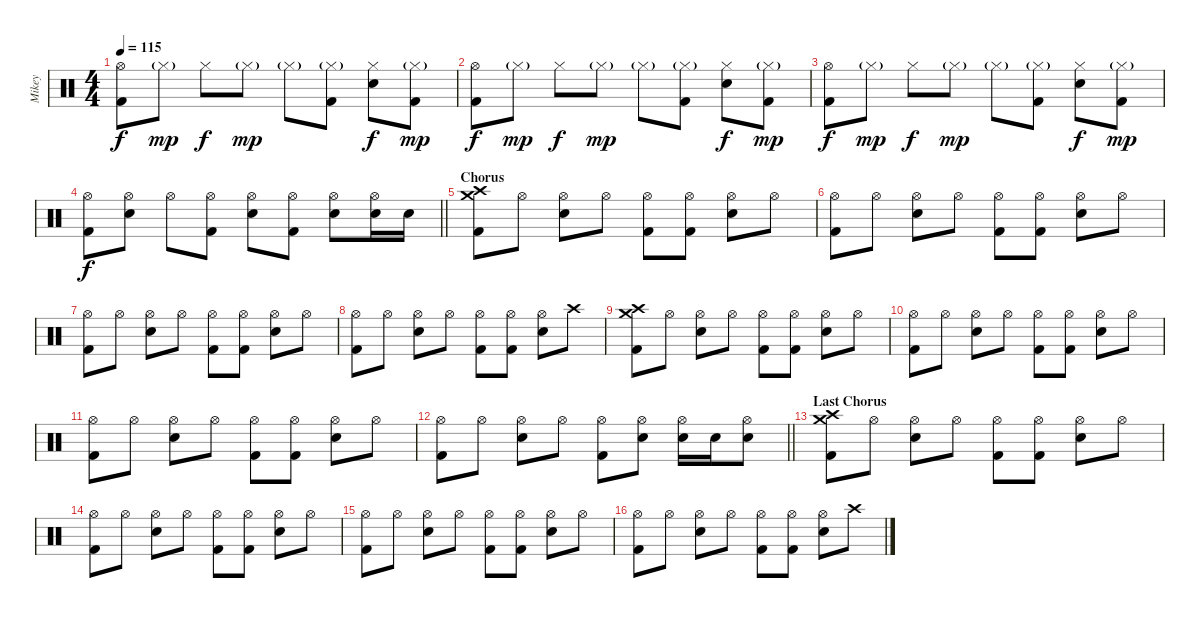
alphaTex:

\track ("Mikey" "Mikey") {instrument percussion}
\staff {score}
\articulation defaults
\ts (4 4)
\tempo 115
\clef neutral
\ks c
("Hi-Hat (open)" "Kick (hit) 2").8{dy f} "Hi-Hat (closed)"{g}.8{dy mp} "Hi-Hat (closed)".8{dy f} "Hi-Hat (closed)"{g}.8{dy mp} "Hi-Hat (closed)"{g}.8 ("Hi-Hat (closed)"{g} "Kick (hit) 2").8 ("Hi-Hat (closed)" "Snare (hit) 2").8{dy f} ("Hi-Hat (closed)"{g} "Kick (hit) 2").8{dy mp} |
("Hi-Hat (open)" "Kick (hit) 2").8{dy f} "Hi-Hat (closed)"{g}.8{dy mp} "Hi-Hat (closed)".8{dy f} "Hi-Hat (closed)"{g}.8{dy mp} "Hi-Hat (closed)"{g}.8 ("Hi-Hat (closed)"{g} "Kick (hit) 2").8 ("Hi-Hat (closed)" "Snare (hit) 2").8{dy f} ("Hi-Hat (closed)"{g} "Kick (hit) 2").8{dy mp} |
("Hi-Hat (open)" "Kick (hit) 2").8{dy f} "Hi-Hat (closed)"{g}.8{dy mp} "Hi-Hat (closed)".8{dy f} "Hi-Hat (closed)"{g}.8{dy mp} "Hi-Hat (closed)"{g}.8 ("Hi-Hat (closed)"{g} "Kick (hit) 2").8 ("Hi-Hat (closed)" "Snare (hit) 2").8{dy f} ("Hi-Hat (closed)"{g} "Kick (hit) 2").8{dy mp} |
\barLineRight lightlight
("Hi-Hat (open)" "Kick (hit) 2").8{dy f} ("Hi-Hat (open)" "Snare (hit) 2").8 "Hi-Hat (open)".8 ("Hi-Hat (open)" "Kick (hit) 2").8 ("Hi-Hat (open)" "Snare (hit) 2").8 ("Hi-Hat (open)" "Kick (hit) 2").8 ("Hi-Hat (open)" "Snare (hit) 2").8 ("Hi-Hat (open)" "Snare (hit) 2").16 "Snare (hit) 2".16 |
\section ("" "Chorus")
("Crash high (hit)" "Crash medium (hit)" "Kick (hit) 2").8 "Hi-Hat (open)".8 ("Hi-Hat (open)" "Snare (hit) 2").8 "Hi-Hat (open)".8 ("Hi-Hat (open)" "Kick (hit) 2").8 ("Hi-Hat (open)" "Kick (hit) 2").8 ("Hi-Hat (open)" "Snare (hit) 2").8 "Hi-Hat (open)".8 |
("Hi-Hat (open)" "Kick (hit) 2").8 "Hi-Hat (open)".8 ("Hi-Hat (open)" "Snare (hit) 2").8 "Hi-Hat (open)".8 ("Hi-Hat (open)" "Kick (hit) 2").8 ("Hi-Hat (open)" "Kick (hit) 2").8 ("Hi-Hat (open)" "Snare (hit) 2").8 "Hi-Hat (open)".8 |
("Hi-Hat (open)" "Kick (hit) 2").8 "Hi-Hat (open)".8 ("Hi-Hat (open)" "Snare (hit) 2").8 "Hi-Hat (open)".8 ("Hi-Hat (open)" "Kick (hit) 2").8 ("Hi-Hat (open)" "Kick (hit) 2").8 ("Hi-Hat (open)" "Snare (hit) 2").8 "Hi-Hat (open)".8 |
("Hi-Hat (open)" "Kick (hit) 2").8 "Hi-Hat (open)".8 ("Hi-Hat (open)" "Snare (hit) 2").8 "Hi-Hat (open)".8 ("Hi-Hat (open)" "Kick (hit) 2").8 ("Hi-Hat (open)" "Kick (hit) 2").8 ("Hi-Hat (open)" "Snare (hit) 2").8 "Crash high (hit)".8 |
("Crash high (hit)" "Crash medium (hit)" "Kick (hit) 2").8 "Hi-Hat (open)".8 ("Hi-Hat (open)" "Snare (hit) 2").8 "Hi-Hat (open)".8 ("Hi-Hat (open)" "Kick (hit) 2").8 ("Hi-Hat (open)" "Kick (hit) 2").8 ("Hi-Hat (open)" "Snare (hit) 2").8 "Hi-Hat (open)".8 |
("Hi-Hat (open)" "Kick (hit) 2").8 "Hi-Hat (open)".8 ("Hi-Hat (open)" "Snare (hit) 2").8 "Hi-Hat (open)".8 ("Hi-Hat (open)" "Kick (hit) 2").8 ("Hi-Hat (open)" "Kick (hit) 2").8 ("Hi-Hat (open)" "Snare (hit) 2").8 "Hi-Hat (open)".8 |
("Hi-Hat (open)" "Kick (hit) 2").8 "Hi-Hat (open)".8 ("Hi-Hat (open)" "Snare (hit) 2").8 "Hi-Hat (open)".8 ("Hi-Hat (open)" "Kick (hit) 2").8 ("Hi-Hat (open)" "Kick (hit) 2").8 ("Hi-Hat (open)" "Snare (hit) 2").8 "Hi-Hat (open)".8 |
\barLineRight lightlight
("Hi-Hat (open)" "Kick (hit) 2").8 "Hi-Hat (open)".8 ("Hi-Hat (open)" "Snare (hit) 2").8 "Hi-Hat (open)".8 ("Hi-Hat (open)" "Kick (hit) 2").8 ("Hi-Hat (open)" "Snare (hit) 2").8 ("Hi-Hat (open)" "Snare (hit) 2").16 "Snare (hit) 2".16 ("Hi-Hat (open)" "Snare (hit) 2").8 |
\section ("" "Last Chorus")
("Crash high (hit)" "Crash medium (hit)" "Kick (hit) 2").8 "Hi-Hat (open)".8 ("Hi-Hat (open)" "Snare (hit) 2").8 "Hi-Hat (open)".8 ("Hi-Hat (open)" "Kick (hit) 2").8 ("Hi-Hat (open)" "Kick (hit) 2").8 ("Hi-Hat (open)" "Snare (hit) 2").8 "Hi-Hat (open)".8 |
("Hi-Hat (open)" "Kick (hit) 2").8 "Hi-Hat (open)".8 ("Hi-Hat (open)" "Snare (hit) 2").8 "Hi-Hat (open)".8 ("Hi-Hat (open)" "Kick (hit) 2").8 ("Hi-Hat (open)" "Kick (hit) 2").8 ("Hi-Hat (open)" "Snare (hit) 2").8 "Hi-Hat (open)".8 |
("Hi-Hat (open)" "Kick (hit) 2").8 "Hi-Hat (open)".8 ("Hi-Hat (open)" "Snare (hit) 2").8 "Hi-Hat (open)".8 ("Hi-Hat (open)" "Kick (hit) 2").8 ("Hi-Hat (open)" "Kick (hit) 2").8 ("Hi-Hat (open)" "Snare (hit) 2").8 "Hi-Hat (open)".8 |
("Hi-Hat (open)" "Kick (hit) 2").8 "Hi-Hat (open)".8 ("Hi-Hat (open)" "Snare (hit) 2").8 "Hi-Hat (open)".8 ("Hi-Hat (open)" "Kick (hit) 2").8 ("Hi-Hat (open)" "Kick (hit) 2").8 ("Hi-Hat (open)" "Snare (hit) 2").8 "Crash high (hit)".8
